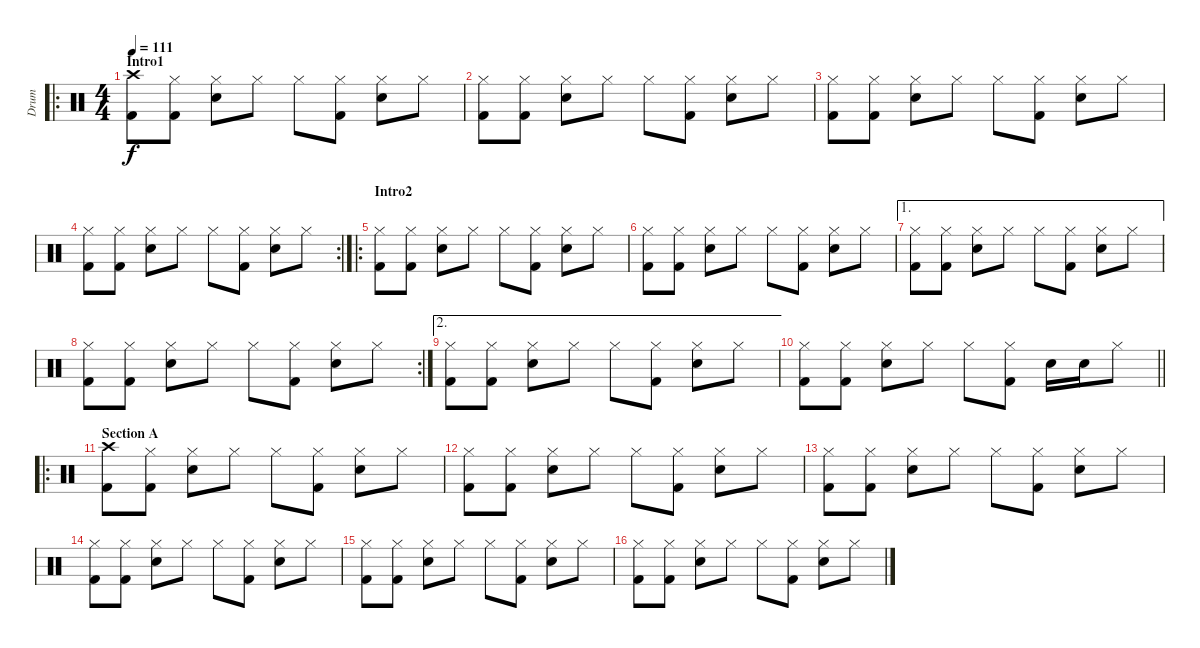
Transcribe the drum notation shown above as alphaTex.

\track ("Drum" "Drum") {instrument percussion}
\staff {score}
\articulation defaults
\ro
\ts (4 4)
\section ("" "Intro1")
\tempo 111
\clef neutral
\ks c
("Crash high (hit)" "Kick (hit) 2").8{dy f} ("Hi-Hat (closed)" "Kick (hit) 2").8 ("Hi-Hat (closed)" "Snare (hit) 2").8 "Hi-Hat (closed)".8 "Hi-Hat (closed)".8 ("Hi-Hat (closed)" "Kick (hit) 2").8 ("Hi-Hat (closed)" "Snare (hit) 2").8 "Hi-Hat (closed)".8 |
("Hi-Hat (closed)" "Kick (hit) 2").8 ("Hi-Hat (closed)" "Kick (hit) 2").8 ("Hi-Hat (closed)" "Snare (hit) 2").8 "Hi-Hat (closed)".8 "Hi-Hat (closed)".8 ("Hi-Hat (closed)" "Kick (hit) 2").8 ("Hi-Hat (closed)" "Snare (hit) 2").8 "Hi-Hat (closed)".8 |
("Hi-Hat (closed)" "Kick (hit) 2").8 ("Hi-Hat (closed)" "Kick (hit) 2").8 ("Hi-Hat (closed)" "Snare (hit) 2").8 "Hi-Hat (closed)".8 "Hi-Hat (closed)".8 ("Hi-Hat (closed)" "Kick (hit) 2").8 ("Hi-Hat (closed)" "Snare (hit) 2").8 "Hi-Hat (closed)".8 |
\rc 2
("Hi-Hat (closed)" "Kick (hit) 2").8 ("Hi-Hat (closed)" "Kick (hit) 2").8 ("Hi-Hat (closed)" "Snare (hit) 2").8 "Hi-Hat (closed)".8 "Hi-Hat (closed)".8 ("Hi-Hat (closed)" "Kick (hit) 2").8 ("Hi-Hat (closed)" "Snare (hit) 2").8 "Hi-Hat (closed)".8 |
\ro
\section ("" "Intro2")
("Hi-Hat (closed)" "Kick (hit) 2").8 ("Hi-Hat (closed)" "Kick (hit) 2").8 ("Hi-Hat (closed)" "Snare (hit) 2").8 "Hi-Hat (closed)".8 "Hi-Hat (closed)".8 ("Hi-Hat (closed)" "Kick (hit) 2").8 ("Hi-Hat (closed)" "Snare (hit) 2").8 "Hi-Hat (closed)".8 |
("Hi-Hat (closed)" "Kick (hit) 2").8 ("Hi-Hat (closed)" "Kick (hit) 2").8 ("Hi-Hat (closed)" "Snare (hit) 2").8 "Hi-Hat (closed)".8 "Hi-Hat (closed)".8 ("Hi-Hat (closed)" "Kick (hit) 2").8 ("Hi-Hat (closed)" "Snare (hit) 2").8 "Hi-Hat (closed)".8 |
\ae 1
("Hi-Hat (closed)" "Kick (hit) 2").8 ("Hi-Hat (closed)" "Kick (hit) 2").8 ("Hi-Hat (closed)" "Snare (hit) 2").8 "Hi-Hat (closed)".8 "Hi-Hat (closed)".8 ("Hi-Hat (closed)" "Kick (hit) 2").8 ("Hi-Hat (closed)" "Snare (hit) 2").8 "Hi-Hat (closed)".8 |
\rc 2
("Hi-Hat (closed)" "Kick (hit) 2").8 ("Hi-Hat (closed)" "Kick (hit) 2").8 ("Hi-Hat (closed)" "Snare (hit) 2").8 "Hi-Hat (closed)".8 "Hi-Hat (closed)".8 ("Hi-Hat (closed)" "Kick (hit) 2").8 ("Hi-Hat (closed)" "Snare (hit) 2").8 "Hi-Hat (closed)".8 |
\ae 2
("Hi-Hat (closed)" "Kick (hit) 2").8 ("Hi-Hat (closed)" "Kick (hit) 2").8 ("Hi-Hat (closed)" "Snare (hit) 2").8 "Hi-Hat (closed)".8 "Hi-Hat (closed)".8 ("Hi-Hat (closed)" "Kick (hit) 2").8 ("Hi-Hat (closed)" "Snare (hit) 2").8 "Hi-Hat (closed)".8 |
\barLineRight lightlight
("Hi-Hat (closed)" "Kick (hit) 2").8 ("Hi-Hat (closed)" "Kick (hit) 2").8 ("Hi-Hat (closed)" "Snare (hit) 2").8 "Hi-Hat (closed)".8 "Hi-Hat (closed)".8 ("Hi-Hat (closed)" "Kick (hit) 2").8 "Snare (hit) 2".16 "Snare (hit) 2".16 "Hi-Hat (closed)".8 |
\ro
\section ("" "Section A")
("Crash high (hit)" "Kick (hit) 2").8 ("Hi-Hat (closed)" "Kick (hit) 2").8 ("Hi-Hat (closed)" "Snare (hit) 2").8 "Hi-Hat (closed)".8 "Hi-Hat (closed)".8 ("Hi-Hat (closed)" "Kick (hit) 2").8 ("Hi-Hat (closed)" "Snare (hit) 2").8 "Hi-Hat (closed)".8 |
("Hi-Hat (closed)" "Kick (hit) 2").8 ("Hi-Hat (closed)" "Kick (hit) 2").8 ("Hi-Hat (closed)" "Snare (hit) 2").8 "Hi-Hat (closed)".8 "Hi-Hat (closed)".8 ("Hi-Hat (closed)" "Kick (hit) 2").8 ("Hi-Hat (closed)" "Snare (hit) 2").8 "Hi-Hat (closed)".8 |
("Hi-Hat (closed)" "Kick (hit) 2").8 ("Hi-Hat (closed)" "Kick (hit) 2").8 ("Hi-Hat (closed)" "Snare (hit) 2").8 "Hi-Hat (closed)".8 "Hi-Hat (closed)".8 ("Hi-Hat (closed)" "Kick (hit) 2").8 ("Hi-Hat (closed)" "Snare (hit) 2").8 "Hi-Hat (closed)".8 |
("Hi-Hat (closed)" "Kick (hit) 2").8 ("Hi-Hat (closed)" "Kick (hit) 2").8 ("Hi-Hat (closed)" "Snare (hit) 2").8 "Hi-Hat (closed)".8 "Hi-Hat (closed)".8 ("Hi-Hat (closed)" "Kick (hit) 2").8 ("Hi-Hat (closed)" "Snare (hit) 2").8 "Hi-Hat (closed)".8 |
("Hi-Hat (closed)" "Kick (hit) 2").8 ("Hi-Hat (closed)" "Kick (hit) 2").8 ("Hi-Hat (closed)" "Snare (hit) 2").8 "Hi-Hat (closed)".8 "Hi-Hat (closed)".8 ("Hi-Hat (closed)" "Kick (hit) 2").8 ("Hi-Hat (closed)" "Snare (hit) 2").8 "Hi-Hat (closed)".8 |
("Hi-Hat (closed)" "Kick (hit) 2").8 ("Hi-Hat (closed)" "Kick (hit) 2").8 ("Hi-Hat (closed)" "Snare (hit) 2").8 "Hi-Hat (closed)".8 "Hi-Hat (closed)".8 ("Hi-Hat (closed)" "Kick (hit) 2").8 ("Hi-Hat (closed)" "Snare (hit) 2").8 "Hi-Hat (closed)".8
